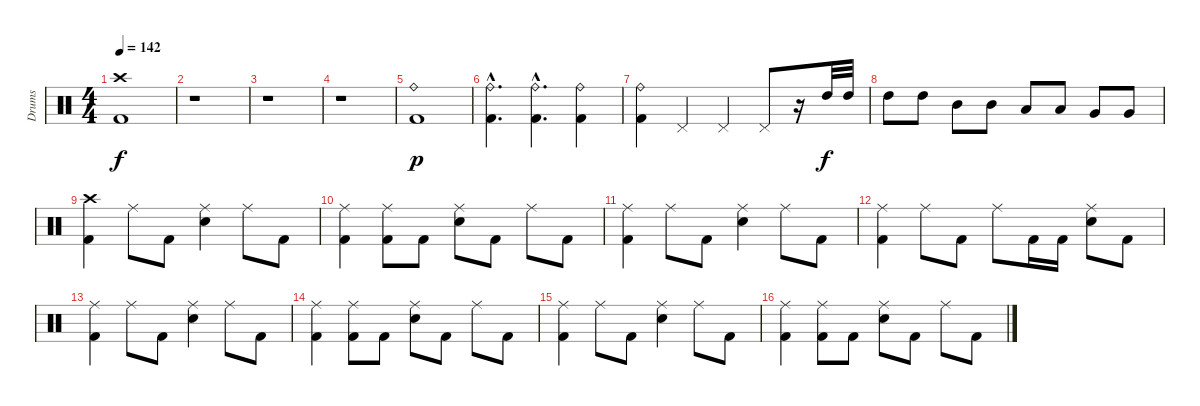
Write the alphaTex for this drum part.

\track ("Drums" "Drums") {instrument percussion}
\staff {score}
\articulation defaults
\ts (4 4)
\tempo 142
\clef neutral
\ks c
("Crash high (hit)" "Kick (hit) 2").1{dy f} |
r.1 |
r.1 |
r.1 |
("Ride (bell)" "Kick (hit) 2").1{dy p} |
("Ride (bell)"{hac} "Kick (hit) 2"{hac}).4{d} ("Ride (bell)"{hac} "Kick (hit) 2"{hac}).4{d} ("Ride (bell)" "Kick (hit) 2").4 |
("Ride (bell)" "Kick (hit) 2").4 "Pedal Hi-Hat (hit)".4 "Pedal Hi-Hat (hit)".4 "Pedal Hi-Hat (hit)".8 r.16 "High Tom (hit)".32{dy f} "High Tom (hit)".32 |
"High Tom (hit)".8 "High Tom (hit)".8 "Mid Tom (hit)".8 "Mid Tom (hit)".8 "Low Tom (hit)".8 "Low Tom (hit)".8 "Very Low Tom (hit)".8 "Very Low Tom (hit)".8 |
("Crash high (hit)" "Kick (hit) 2").4 "Ride (middle)".8 "Kick (hit) 2".8 ("Ride (middle)" "Snare (hit) 2").4 "Ride (middle)".8 "Kick (hit) 2".8 |
("Ride (middle)" "Kick (hit) 2").4 ("Ride (middle)" "Kick (hit) 2").8 "Kick (hit) 2".8 ("Ride (middle)" "Snare (hit) 2").8 "Kick (hit) 2".8 "Ride (middle)".8 "Kick (hit) 2".8 |
("Ride (middle)" "Kick (hit) 2").4 "Ride (middle)".8 "Kick (hit) 2".8 ("Ride (middle)" "Snare (hit) 2").4 "Ride (middle)".8 "Kick (hit) 2".8 |
("Ride (middle)" "Kick (hit) 2").4 "Ride (middle)".8 "Kick (hit) 2".8 "Ride (middle)".8 "Kick (hit) 2".16 "Kick (hit) 2".16 ("Ride (middle)" "Snare (hit) 2").8 "Kick (hit) 2".8 |
("Ride (middle)" "Kick (hit) 2").4 "Ride (middle)".8 "Kick (hit) 2".8 ("Ride (middle)" "Snare (hit) 2").4 "Ride (middle)".8 "Kick (hit) 2".8 |
("Ride (middle)" "Kick (hit) 2").4 ("Ride (middle)" "Kick (hit) 2").8 "Kick (hit) 2".8 ("Ride (middle)" "Snare (hit) 2").8 "Kick (hit) 2".8 "Ride (middle)".8 "Kick (hit) 2".8 |
("Ride (middle)" "Kick (hit) 2").4 "Ride (middle)".8 "Kick (hit) 2".8 ("Ride (middle)" "Snare (hit) 2").4 "Ride (middle)".8 "Kick (hit) 2".8 |
("Ride (middle)" "Kick (hit) 2").4 ("Ride (middle)" "Kick (hit) 2").8 "Kick (hit) 2".8 ("Ride (middle)" "Snare (hit) 2").8 "Kick (hit) 2".8 "Ride (middle)".8 "Kick (hit) 2".8
